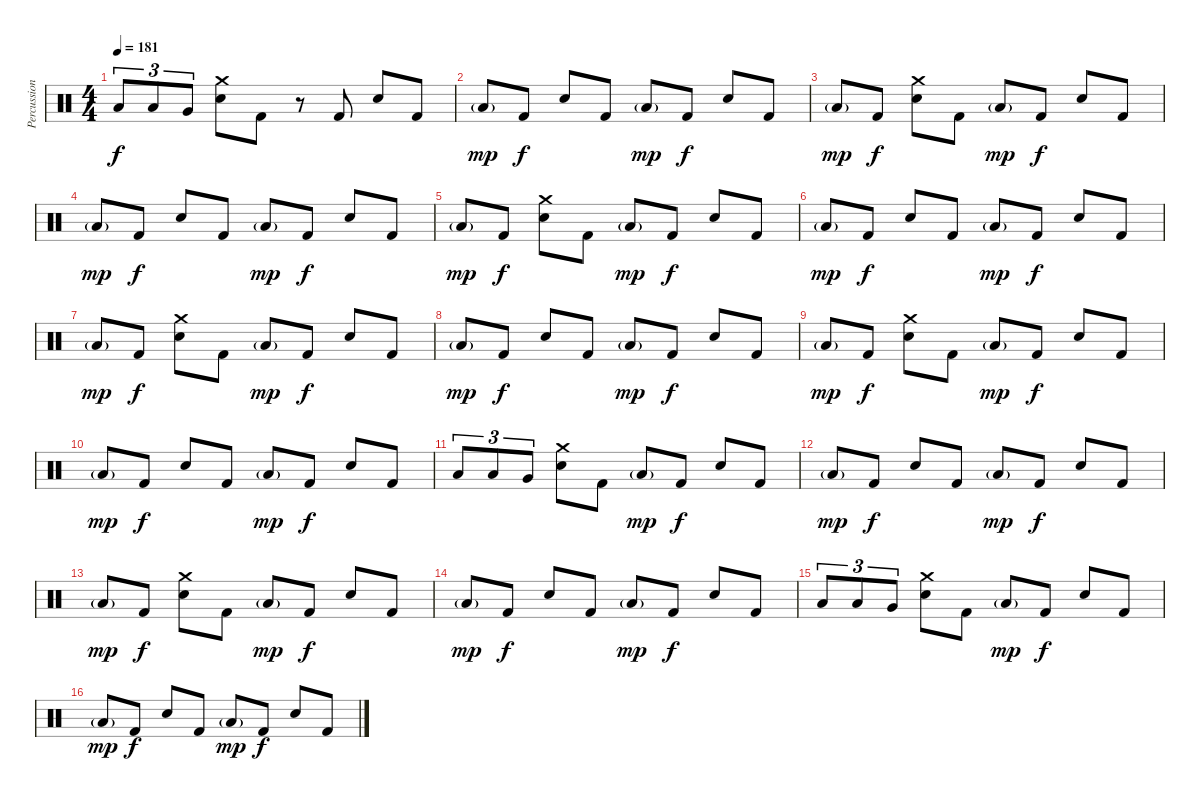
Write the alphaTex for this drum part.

\track ("Percussion" "Percussion") {instrument percussion}
\staff {score}
\articulation defaults
\ts (4 4)
\section ("" "")
\tempo 181
\clef neutral
\ks c "Low Tom (hit)".8{tu (3 2) dy f} "Low Tom (hit)".8{tu (3 2)} "Very Low Tom (hit)".8{tu (3 2)}
("Crash medium (hit)" "Electric Snare (hit)").8 "Kick (hit) 2".8 r.8 "Kick (hit) 2".8 "Electric Snare (hit)".8 "Kick (hit) 2".8 |
"Low Tom (hit)"{g}.8{dy mp} "Kick (hit) 2".8{dy f} "Electric Snare (hit)".8 "Kick (hit) 2".8 "Low Tom (hit)"{g}.8{dy mp} "Kick (hit) 2".8{dy f} "Electric Snare (hit)".8 "Kick (hit) 2".8 |
"Low Tom (hit)"{g}.8{dy mp} "Kick (hit) 2".8{dy f} ("Crash medium (hit)" "Electric Snare (hit)").8 "Kick (hit) 2".8 "Low Tom (hit)"{g}.8{dy mp} "Kick (hit) 2".8{dy f} "Electric Snare (hit)".8 "Kick (hit) 2".8 |
"Low Tom (hit)"{g}.8{dy mp} "Kick (hit) 2".8{dy f} "Electric Snare (hit)".8 "Kick (hit) 2".8 "Low Tom (hit)"{g}.8{dy mp} "Kick (hit) 2".8{dy f} "Electric Snare (hit)".8 "Kick (hit) 2".8 |
"Low Tom (hit)"{g}.8{dy mp} "Kick (hit) 2".8{dy f} ("Crash medium (hit)" "Electric Snare (hit)").8 "Kick (hit) 2".8 "Low Tom (hit)"{g}.8{dy mp} "Kick (hit) 2".8{dy f} "Electric Snare (hit)".8 "Kick (hit) 2".8 |
"Low Tom (hit)"{g}.8{dy mp} "Kick (hit) 2".8{dy f} "Electric Snare (hit)".8 "Kick (hit) 2".8 "Low Tom (hit)"{g}.8{dy mp} "Kick (hit) 2".8{dy f} "Electric Snare (hit)".8 "Kick (hit) 2".8 |
"Low Tom (hit)"{g}.8{dy mp} "Kick (hit) 2".8{dy f} ("Crash medium (hit)" "Electric Snare (hit)").8 "Kick (hit) 2".8 "Low Tom (hit)"{g}.8{dy mp} "Kick (hit) 2".8{dy f} "Electric Snare (hit)".8 "Kick (hit) 2".8 |
"Low Tom (hit)"{g}.8{dy mp} "Kick (hit) 2".8{dy f} "Electric Snare (hit)".8 "Kick (hit) 2".8 "Low Tom (hit)"{g}.8{dy mp} "Kick (hit) 2".8{dy f} "Electric Snare (hit)".8 "Kick (hit) 2".8 |
"Low Tom (hit)"{g}.8{dy mp} "Kick (hit) 2".8{dy f} ("Crash medium (hit)" "Electric Snare (hit)").8 "Kick (hit) 2".8 "Low Tom (hit)"{g}.8{dy mp} "Kick (hit) 2".8{dy f} "Electric Snare (hit)".8 "Kick (hit) 2".8 |
"Low Tom (hit)"{g}.8{dy mp} "Kick (hit) 2".8{dy f} "Electric Snare (hit)".8 "Kick (hit) 2".8 "Low Tom (hit)"{g}.8{dy mp} "Kick (hit) 2".8{dy f} "Electric Snare (hit)".8 "Kick (hit) 2".8 |
"Low Tom (hit)".8{tu (3 2)} "Low Tom (hit)".8{tu (3 2)} "Very Low Tom (hit)".8{tu (3 2)} ("Crash medium (hit)" "Electric Snare (hit)").8 "Kick (hit) 2".8 "Low Tom (hit)"{g}.8{dy mp} "Kick (hit) 2".8{dy f} "Electric Snare (hit)".8 "Kick (hit) 2".8 |
"Low Tom (hit)"{g}.8{dy mp} "Kick (hit) 2".8{dy f} "Electric Snare (hit)".8 "Kick (hit) 2".8 "Low Tom (hit)"{g}.8{dy mp} "Kick (hit) 2".8{dy f} "Electric Snare (hit)".8 "Kick (hit) 2".8 |
"Low Tom (hit)"{g}.8{dy mp} "Kick (hit) 2".8{dy f} ("Crash medium (hit)" "Electric Snare (hit)").8 "Kick (hit) 2".8 "Low Tom (hit)"{g}.8{dy mp} "Kick (hit) 2".8{dy f} "Electric Snare (hit)".8 "Kick (hit) 2".8 |
"Low Tom (hit)"{g}.8{dy mp} "Kick (hit) 2".8{dy f} "Electric Snare (hit)".8 "Kick (hit) 2".8 "Low Tom (hit)"{g}.8{dy mp} "Kick (hit) 2".8{dy f} "Electric Snare (hit)".8 "Kick (hit) 2".8 |
"Low Tom (hit)".8{tu (3 2)} "Low Tom (hit)".8{tu (3 2)} "Very Low Tom (hit)".8{tu (3 2)} ("Crash medium (hit)" "Electric Snare (hit)").8 "Kick (hit) 2".8 "Low Tom (hit)"{g}.8{dy mp} "Kick (hit) 2".8{dy f} "Electric Snare (hit)".8 "Kick (hit) 2".8 |
"Low Tom (hit)"{g}.8{dy mp} "Kick (hit) 2".8{dy f} "Electric Snare (hit)".8 "Kick (hit) 2".8 "Low Tom (hit)"{g}.8{dy mp} "Kick (hit) 2".8{dy f} "Electric Snare (hit)".8 "Kick (hit) 2".8
